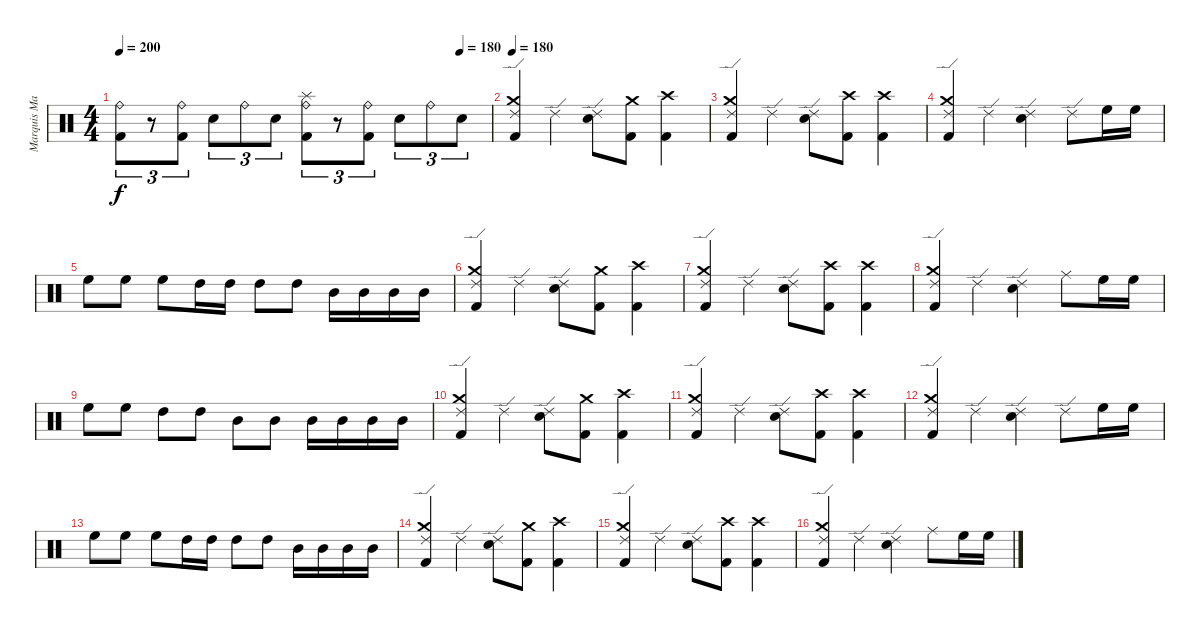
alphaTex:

\track ("Marquis Marky (DRUMS)" "Marquis Ma") {instrument percussion}
\staff {score}
\articulation defaults
\ts (4 4)
\tempo 200
\tempo (180 0.9166666666666666)
\clef neutral
\ks c
("Ride (bell)" "Kick (hit) 2").8{tu (3 2) dy f} r.8{tu (3 2)} ("Ride (bell)" "Kick (hit) 2").8{tu (3 2)} "Snare (hit) 2".8{tu (3 2)} "Ride (bell)".8{tu (3 2)} "Snare (hit) 2".8{tu (3 2)} ("Splash (hit)" "Ride (bell)" "Kick (hit) 2").8{tu (3 2)} r.8{tu (3 2)} ("Ride (bell)" "Kick (hit) 2").8{tu (3 2)} "Snare (hit) 2".8{tu (3 2)} "Ride (bell)".8{tu (3 2)} "Snare (hit) 2".8{tu (3 2)} |
\tempo 180
("Crash medium (hit)" "Ride (edge) 2" "Kick (hit) 2").4 "Ride (edge) 2".4 ("Ride (edge) 2" "Snare (hit) 2").8 ("Crash medium (hit)" "Kick (hit) 2").8 ("Crash high (hit)" "Kick (hit) 2").4 |
("Ride (edge) 2" "Crash medium (hit)" "Kick (hit) 2").4 "Ride (edge) 2".4 ("Ride (edge) 2" "Snare (hit) 2").8 ("Crash high (hit)" "Kick (hit) 2").8 ("Crash high (hit)" "Kick (hit) 2").4 |
("Ride (edge) 2" "Crash medium (hit)" "Kick (hit) 2").4 "Ride (edge) 2".4 ("Ride (edge) 2" "Snare (hit) 2").4 "Ride (edge) 2".8 "High Floor Tom (hit)".16 "High Floor Tom (hit)".16 |
"High Floor Tom (hit)".8 "High Floor Tom (hit)".8 "High Floor Tom (hit)".8 "High Tom (hit)".16 "High Tom (hit)".16 "High Tom (hit)".8 "High Tom (hit)".8 "Mid Tom (hit)".16 "Mid Tom (hit)".16 "Mid Tom (hit)".16 "Mid Tom (hit)".16 |
("Crash medium (hit)" "Ride (edge) 2" "Kick (hit) 2").4 "Ride (edge) 2".4 ("Ride (edge) 2" "Snare (hit) 2").8 ("Crash medium (hit)" "Kick (hit) 2").8 ("Crash high (hit)" "Kick (hit) 2").4 |
("Ride (edge) 2" "Crash medium (hit)" "Kick (hit) 2").4 "Ride (edge) 2".4 ("Ride (edge) 2" "Snare (hit) 2").8 ("Crash high (hit)" "Kick (hit) 2").8 ("Crash high (hit)" "Kick (hit) 2").4 |
("Ride (edge) 2" "Crash medium (hit)" "Kick (hit) 2").4 "Ride (edge) 2".4 ("Ride (edge) 2" "Snare (hit) 2").4 "Ride (middle)".8 "High Floor Tom (hit)".16 "High Floor Tom (hit)".16 |
"High Floor Tom (hit)".8 "High Floor Tom (hit)".8 "High Tom (hit)".8 "High Tom (hit)".8 "Mid Tom (hit)".8 "Mid Tom (hit)".8 "Mid Tom (hit)".16 "Mid Tom (hit)".16 "Mid Tom (hit)".16 "Mid Tom (hit)".16 |
("Crash medium (hit)" "Ride (edge) 2" "Kick (hit) 2").4 "Ride (edge) 2".4 ("Ride (edge) 2" "Snare (hit) 2").8 ("Crash medium (hit)" "Kick (hit) 2").8 ("Crash high (hit)" "Kick (hit) 2").4 |
("Ride (edge) 2" "Crash medium (hit)" "Kick (hit) 2").4 "Ride (edge) 2".4 ("Ride (edge) 2" "Snare (hit) 2").8 ("Crash high (hit)" "Kick (hit) 2").8 ("Crash high (hit)" "Kick (hit) 2").4 |
("Ride (edge) 2" "Crash medium (hit)" "Kick (hit) 2").4 "Ride (edge) 2".4 ("Ride (edge) 2" "Snare (hit) 2").4 "Ride (edge) 2".8 "High Floor Tom (hit)".16 "High Floor Tom (hit)".16 |
"High Floor Tom (hit)".8 "High Floor Tom (hit)".8 "High Floor Tom (hit)".8 "High Tom (hit)".16 "High Tom (hit)".16 "High Tom (hit)".8 "High Tom (hit)".8 "Mid Tom (hit)".16 "Mid Tom (hit)".16 "Mid Tom (hit)".16 "Mid Tom (hit)".16 |
("Crash medium (hit)" "Ride (edge) 2" "Kick (hit) 2").4 "Ride (edge) 2".4 ("Ride (edge) 2" "Snare (hit) 2").8 ("Crash medium (hit)" "Kick (hit) 2").8 ("Crash high (hit)" "Kick (hit) 2").4 |
("Ride (edge) 2" "Crash medium (hit)" "Kick (hit) 2").4 "Ride (edge) 2".4 ("Ride (edge) 2" "Snare (hit) 2").8 ("Crash high (hit)" "Kick (hit) 2").8 ("Crash high (hit)" "Kick (hit) 2").4 |
("Ride (edge) 2" "Crash medium (hit)" "Kick (hit) 2").4 "Ride (edge) 2".4 ("Ride (edge) 2" "Snare (hit) 2").4 "Ride (middle)".8 "High Floor Tom (hit)".16 "High Floor Tom (hit)".16
